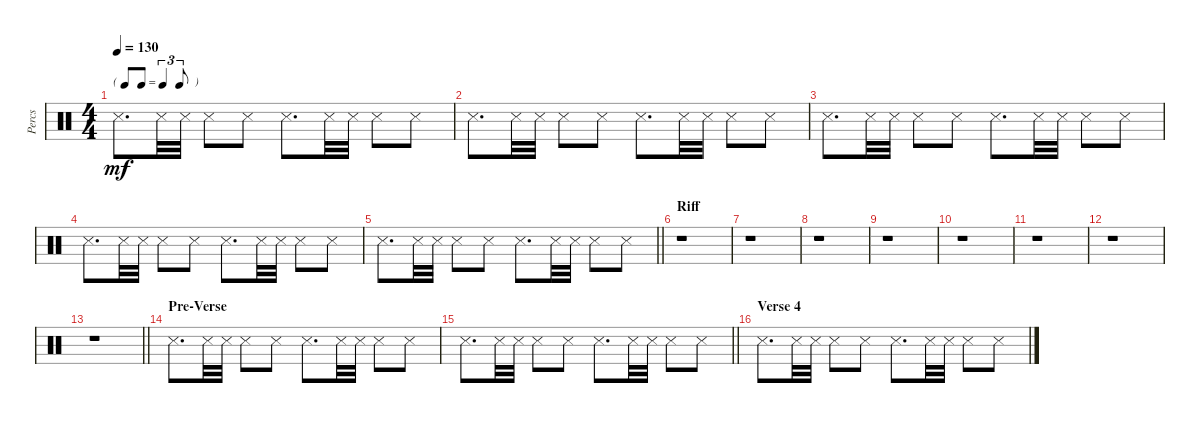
\track ("Percs" "Percs") {instrument percussion}
\staff {score}
\articulation defaults
\ts (4 4)
\tf triplet8th
\tempo 130
\clef neutral
\ks c "Snare (side stick) 3".8{d dy mf} "Snare (side stick) 3".32 "Snare (side stick) 3".32 "Snare (side stick) 3".8 "Snare (side stick) 3".8 "Snare (side stick) 3".8{d} "Snare (side stick) 3".32 "Snare (side stick) 3".32 "Snare (side stick) 3".8 "Snare (side stick) 3".8
|
"Snare (side stick) 3".8{d} "Snare (side stick) 3".32 "Snare (side stick) 3".32 "Snare (side stick) 3".8 "Snare (side stick) 3".8 "Snare (side stick) 3".8{d} "Snare (side stick) 3".32 "Snare (side stick) 3".32 "Snare (side stick) 3".8 "Snare (side stick) 3".8 |
"Snare (side stick) 3".8{d} "Snare (side stick) 3".32 "Snare (side stick) 3".32 "Snare (side stick) 3".8 "Snare (side stick) 3".8 "Snare (side stick) 3".8{d} "Snare (side stick) 3".32 "Snare (side stick) 3".32 "Snare (side stick) 3".8 "Snare (side stick) 3".8 |
"Snare (side stick) 3".8{d} "Snare (side stick) 3".32 "Snare (side stick) 3".32 "Snare (side stick) 3".8 "Snare (side stick) 3".8 "Snare (side stick) 3".8{d} "Snare (side stick) 3".32 "Snare (side stick) 3".32 "Snare (side stick) 3".8 "Snare (side stick) 3".8 |
\barLineRight lightlight "Snare (side stick) 3".8{d} "Snare (side stick) 3".32 "Snare (side stick) 3".32 "Snare (side stick) 3".8 "Snare (side stick) 3".8 "Snare (side stick) 3".8{d} "Snare (side stick) 3".32 "Snare (side stick) 3".32 "Snare (side stick) 3".8 "Snare (side stick) 3".8
|
\section ("" "Riff")
r.1 |
r.1 |
r.1 |
r.1 |
r.1 |
r.1 |
r.1 |
\barLineRight lightlight
r.1 |
\section ("" "Pre-Verse")
"Snare (side stick) 3".8{d} "Snare (side stick) 3".32 "Snare (side stick) 3".32 "Snare (side stick) 3".8 "Snare (side stick) 3".8 "Snare (side stick) 3".8{d} "Snare (side stick) 3".32 "Snare (side stick) 3".32 "Snare (side stick) 3".8 "Snare (side stick) 3".8 |
\barLineRight lightlight "Snare (side stick) 3".8{d} "Snare (side stick) 3".32 "Snare (side stick) 3".32 "Snare (side stick) 3".8 "Snare (side stick) 3".8 "Snare (side stick) 3".8{d} "Snare (side stick) 3".32 "Snare (side stick) 3".32 "Snare (side stick) 3".8 "Snare (side stick) 3".8
|
\section ("" "Verse 4")
"Snare (side stick) 3".8{d} "Snare (side stick) 3".32 "Snare (side stick) 3".32 "Snare (side stick) 3".8 "Snare (side stick) 3".8 "Snare (side stick) 3".8{d} "Snare (side stick) 3".32 "Snare (side stick) 3".32 "Snare (side stick) 3".8 "Snare (side stick) 3".8
